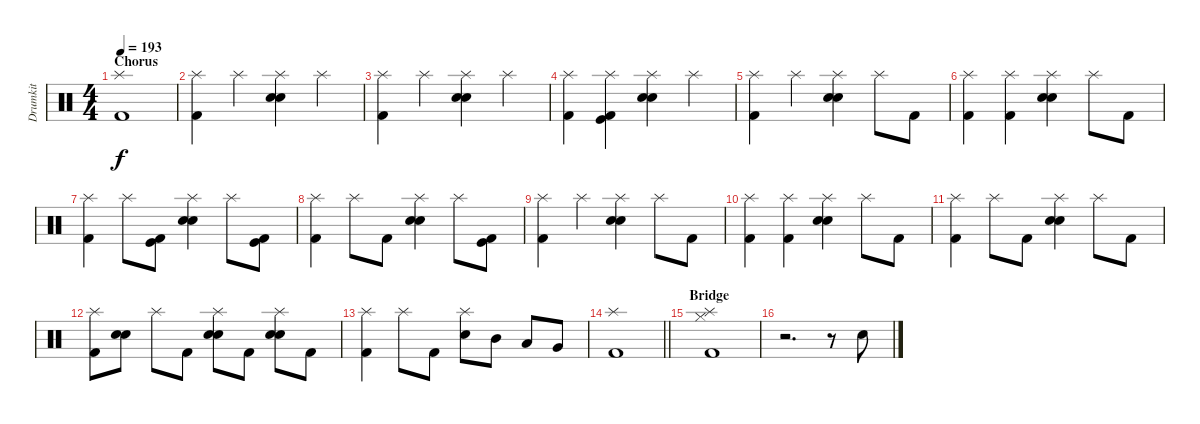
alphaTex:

\track ("Drumkit" "Drumkit") {instrument percussion}
\staff {score}
\articulation defaults
\ts (4 4)
\section ("" "Chorus")
\tempo 193
\clef neutral
\ks c
("Splash (hit)" "Kick (hit) 2").1{dy f} |
("Splash (hit)" "Kick (hit) 2").4 "Splash (hit)".4 ("Splash (hit)" "Electric Snare (hit)" "Snare (hit) 2").4 "Splash (hit)".4 |
("Splash (hit)" "Kick (hit) 2").4 "Splash (hit)".4 ("Splash (hit)" "Snare (hit) 2" "Electric Snare (hit)").4 "Splash (hit)".4 |
("Splash (hit)" "Kick (hit) 2").4 ("Splash (hit)" "Kick (hit)" "Kick (hit) 2").4 ("Splash (hit)" "Snare (hit) 2" "Electric Snare (hit)").4 "Splash (hit)".4 |
("Splash (hit)" "Kick (hit) 2").4 "Splash (hit)".4 ("Splash (hit)" "Snare (hit) 2" "Electric Snare (hit)").4 "Splash (hit)".8 "Kick (hit) 2".8 |
("Splash (hit)" "Kick (hit) 2").4 ("Splash (hit)" "Kick (hit) 2").4 ("Splash (hit)" "Snare (hit) 2" "Electric Snare (hit)").4 "Splash (hit)".8 "Kick (hit) 2".8 |
("Splash (hit)" "Kick (hit) 2").4 "Splash (hit)".8 ("Kick (hit)" "Kick (hit) 2").8 ("Splash (hit)" "Snare (hit) 2" "Electric Snare (hit)").4 "Splash (hit)".8 ("Kick (hit)" "Kick (hit) 2").8 |
("Splash (hit)" "Kick (hit) 2").4 "Splash (hit)".8 "Kick (hit) 2".8 ("Splash (hit)" "Snare (hit) 2" "Electric Snare (hit)").4 "Splash (hit)".8 ("Kick (hit)" "Kick (hit) 2").8 |
("Splash (hit)" "Kick (hit) 2").4 "Splash (hit)".4 ("Splash (hit)" "Snare (hit) 2" "Electric Snare (hit)").4 "Splash (hit)".8 "Kick (hit) 2".8 |
("Splash (hit)" "Kick (hit) 2").4 ("Splash (hit)" "Kick (hit) 2").4 ("Splash (hit)" "Snare (hit) 2" "Electric Snare (hit)").4 "Splash (hit)".8 "Kick (hit) 2".8 |
("Splash (hit)" "Kick (hit) 2").4 "Splash (hit)".8 "Kick (hit) 2".8 ("Splash (hit)" "Snare (hit) 2" "Electric Snare (hit)").4 "Splash (hit)".8 "Kick (hit) 2".8 |
("Splash (hit)" "Kick (hit) 2").8 ("Snare (hit) 2" "Electric Snare (hit)").8 "Splash (hit)".8 "Kick (hit) 2".8 ("Snare (hit) 2" "Splash (hit)" "Electric Snare (hit)").8 "Kick (hit) 2".8 ("Splash (hit)" "Snare (hit) 2" "Electric Snare (hit)").8 "Kick (hit) 2".8 |
("Splash (hit)" "Kick (hit) 2").4 "Splash (hit)".8 "Kick (hit) 2".8 ("Splash (hit)" "Electric Snare (hit)").8 "Mid Tom (hit)".8 "Low Tom (hit)".8 "Very Low Tom (hit)".8 |
\barLineRight lightlight
("Splash (hit)" "Kick (hit) 2").1 |
\section ("" "Bridge")
("Splash (hit)" "Hi-Hat (closed)" "Kick (hit) 2").1 |
r.2{d} r.8 "Electric Snare (hit)".8
